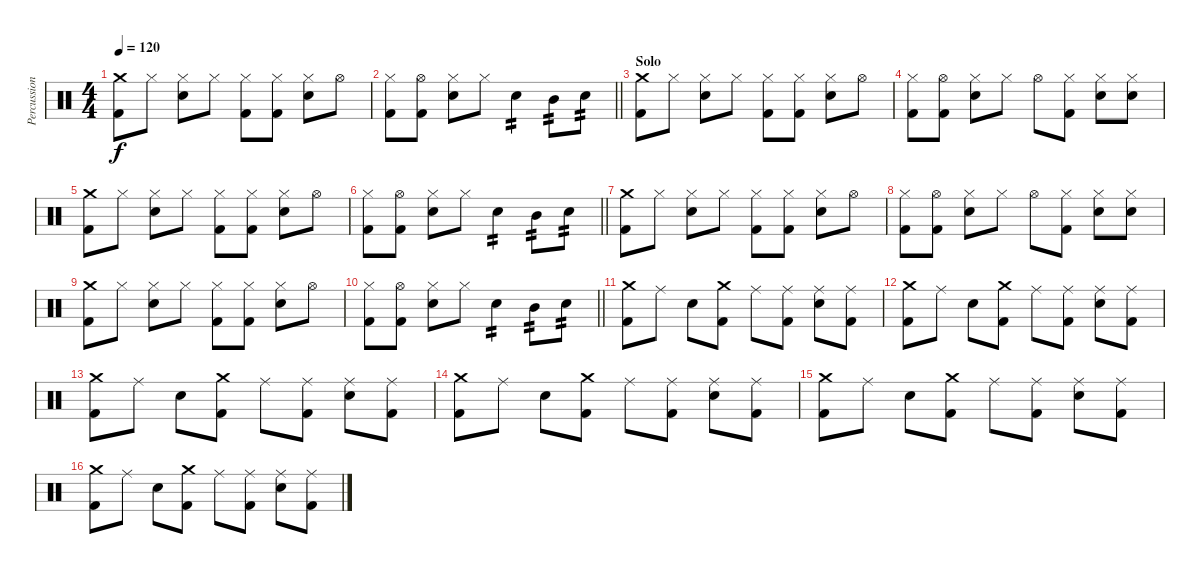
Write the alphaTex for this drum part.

\track ("Percussion" "Percussion") {instrument percussion}
\staff {score}
\articulation defaults
\ts (4 4)
\tempo 120
\clef neutral
\ks c
("Crash medium (hit)" "Kick (hit) 2").8{dy f} "Hi-Hat (closed)".8 ("Hi-Hat (closed)" "Snare (hit) 2").8 "Hi-Hat (closed)".8 ("Hi-Hat (closed)" "Kick (hit) 2").8 ("Hi-Hat (closed)" "Kick (hit) 2").8 ("Hi-Hat (closed)" "Snare (hit) 2").8 "Hi-Hat (open)".8 |
\barLineRight lightlight
("Hi-Hat (closed)" "Kick (hit) 2").8 ("Hi-Hat (open)" "Kick (hit) 2").8 ("Hi-Hat (closed)" "Snare (hit) 2").8 "Hi-Hat (closed)".8 "Snare (hit) 2".4{tp 2} "Mid Tom (hit)".8{tp 2} "Snare (hit) 2".8{tp 2} |
\section ("" "Solo")
("Crash medium (hit)" "Kick (hit) 2").8 "Hi-Hat (closed)".8 ("Hi-Hat (closed)" "Snare (hit) 2").8 "Hi-Hat (closed)".8 ("Hi-Hat (closed)" "Kick (hit) 2").8 ("Hi-Hat (closed)" "Kick (hit) 2").8 ("Hi-Hat (closed)" "Snare (hit) 2").8 "Hi-Hat (open)".8 |
("Hi-Hat (closed)" "Kick (hit) 2").8 ("Hi-Hat (open)" "Kick (hit) 2").8 ("Hi-Hat (closed)" "Snare (hit) 2").8 "Hi-Hat (closed)".8 "Hi-Hat (open)".8 ("Hi-Hat (closed)" "Kick (hit) 2").8 ("Hi-Hat (closed)" "Snare (hit) 2").8 ("Hi-Hat (closed)" "Snare (hit) 2").8 |
("Crash medium (hit)" "Kick (hit) 2").8 "Hi-Hat (closed)".8 ("Hi-Hat (closed)" "Snare (hit) 2").8 "Hi-Hat (closed)".8 ("Hi-Hat (closed)" "Kick (hit) 2").8 ("Hi-Hat (closed)" "Kick (hit) 2").8 ("Hi-Hat (closed)" "Snare (hit) 2").8 "Hi-Hat (open)".8 |
\barLineRight lightlight
("Hi-Hat (closed)" "Kick (hit) 2").8 ("Hi-Hat (open)" "Kick (hit) 2").8 ("Hi-Hat (closed)" "Snare (hit) 2").8 "Hi-Hat (closed)".8 "Snare (hit) 2".4{tp 2} "Mid Tom (hit)".8{tp 2} "Snare (hit) 2".8{tp 2} |
("Crash medium (hit)" "Kick (hit) 2").8 "Hi-Hat (closed)".8 ("Hi-Hat (closed)" "Snare (hit) 2").8 "Hi-Hat (closed)".8 ("Hi-Hat (closed)" "Kick (hit) 2").8 ("Hi-Hat (closed)" "Kick (hit) 2").8 ("Hi-Hat (closed)" "Snare (hit) 2").8 "Hi-Hat (open)".8 |
("Hi-Hat (closed)" "Kick (hit) 2").8 ("Hi-Hat (open)" "Kick (hit) 2").8 ("Hi-Hat (closed)" "Snare (hit) 2").8 "Hi-Hat (closed)".8 "Hi-Hat (open)".8 ("Hi-Hat (closed)" "Kick (hit) 2").8 ("Hi-Hat (closed)" "Snare (hit) 2").8 ("Hi-Hat (closed)" "Snare (hit) 2").8 |
("Crash medium (hit)" "Kick (hit) 2").8 "Hi-Hat (closed)".8 ("Hi-Hat (closed)" "Snare (hit) 2").8 "Hi-Hat (closed)".8 ("Hi-Hat (closed)" "Kick (hit) 2").8 ("Hi-Hat (closed)" "Kick (hit) 2").8 ("Hi-Hat (closed)" "Snare (hit) 2").8 "Hi-Hat (open)".8 |
\barLineRight lightlight
("Hi-Hat (closed)" "Kick (hit) 2").8 ("Hi-Hat (open)" "Kick (hit) 2").8 ("Hi-Hat (closed)" "Snare (hit) 2").8 "Hi-Hat (closed)".8 "Snare (hit) 2".4{tp 2} "Mid Tom (hit)".8{tp 2} "Snare (hit) 2".8{tp 2} |
("Crash medium (hit)" "Kick (hit) 2").8 "Ride (middle)".8 "Snare (hit) 2".8 ("Crash medium (hit)" "Kick (hit) 2").8 "Ride (middle)".8 ("Ride (middle)" "Kick (hit) 2").8 ("Ride (middle)" "Snare (hit) 2").8 ("Ride (middle)" "Kick (hit) 2").8 |
("Crash medium (hit)" "Kick (hit) 2").8 "Ride (middle)".8 "Snare (hit) 2".8 ("Crash medium (hit)" "Kick (hit) 2").8 "Ride (middle)".8 ("Ride (middle)" "Kick (hit) 2").8 ("Ride (middle)" "Snare (hit) 2").8 ("Ride (middle)" "Kick (hit) 2").8 |
("Crash medium (hit)" "Kick (hit) 2").8 "Ride (middle)".8 "Snare (hit) 2".8 ("Crash medium (hit)" "Kick (hit) 2").8 "Ride (middle)".8 ("Ride (middle)" "Kick (hit) 2").8 ("Ride (middle)" "Snare (hit) 2").8 ("Ride (middle)" "Kick (hit) 2").8 |
("Crash medium (hit)" "Kick (hit) 2").8 "Ride (middle)".8 "Snare (hit) 2".8 ("Crash medium (hit)" "Kick (hit) 2").8 "Ride (middle)".8 ("Ride (middle)" "Kick (hit) 2").8 ("Ride (middle)" "Snare (hit) 2").8 ("Ride (middle)" "Kick (hit) 2").8 |
("Crash medium (hit)" "Kick (hit) 2").8 "Ride (middle)".8 "Snare (hit) 2".8 ("Crash medium (hit)" "Kick (hit) 2").8 "Ride (middle)".8 ("Ride (middle)" "Kick (hit) 2").8 ("Ride (middle)" "Snare (hit) 2").8 ("Ride (middle)" "Kick (hit) 2").8 |
("Crash medium (hit)" "Kick (hit) 2").8 "Ride (middle)".8 "Snare (hit) 2".8 ("Crash medium (hit)" "Kick (hit) 2").8 "Ride (middle)".8 ("Ride (middle)" "Kick (hit) 2").8 ("Ride (middle)" "Snare (hit) 2").8 ("Ride (middle)" "Kick (hit) 2").8
